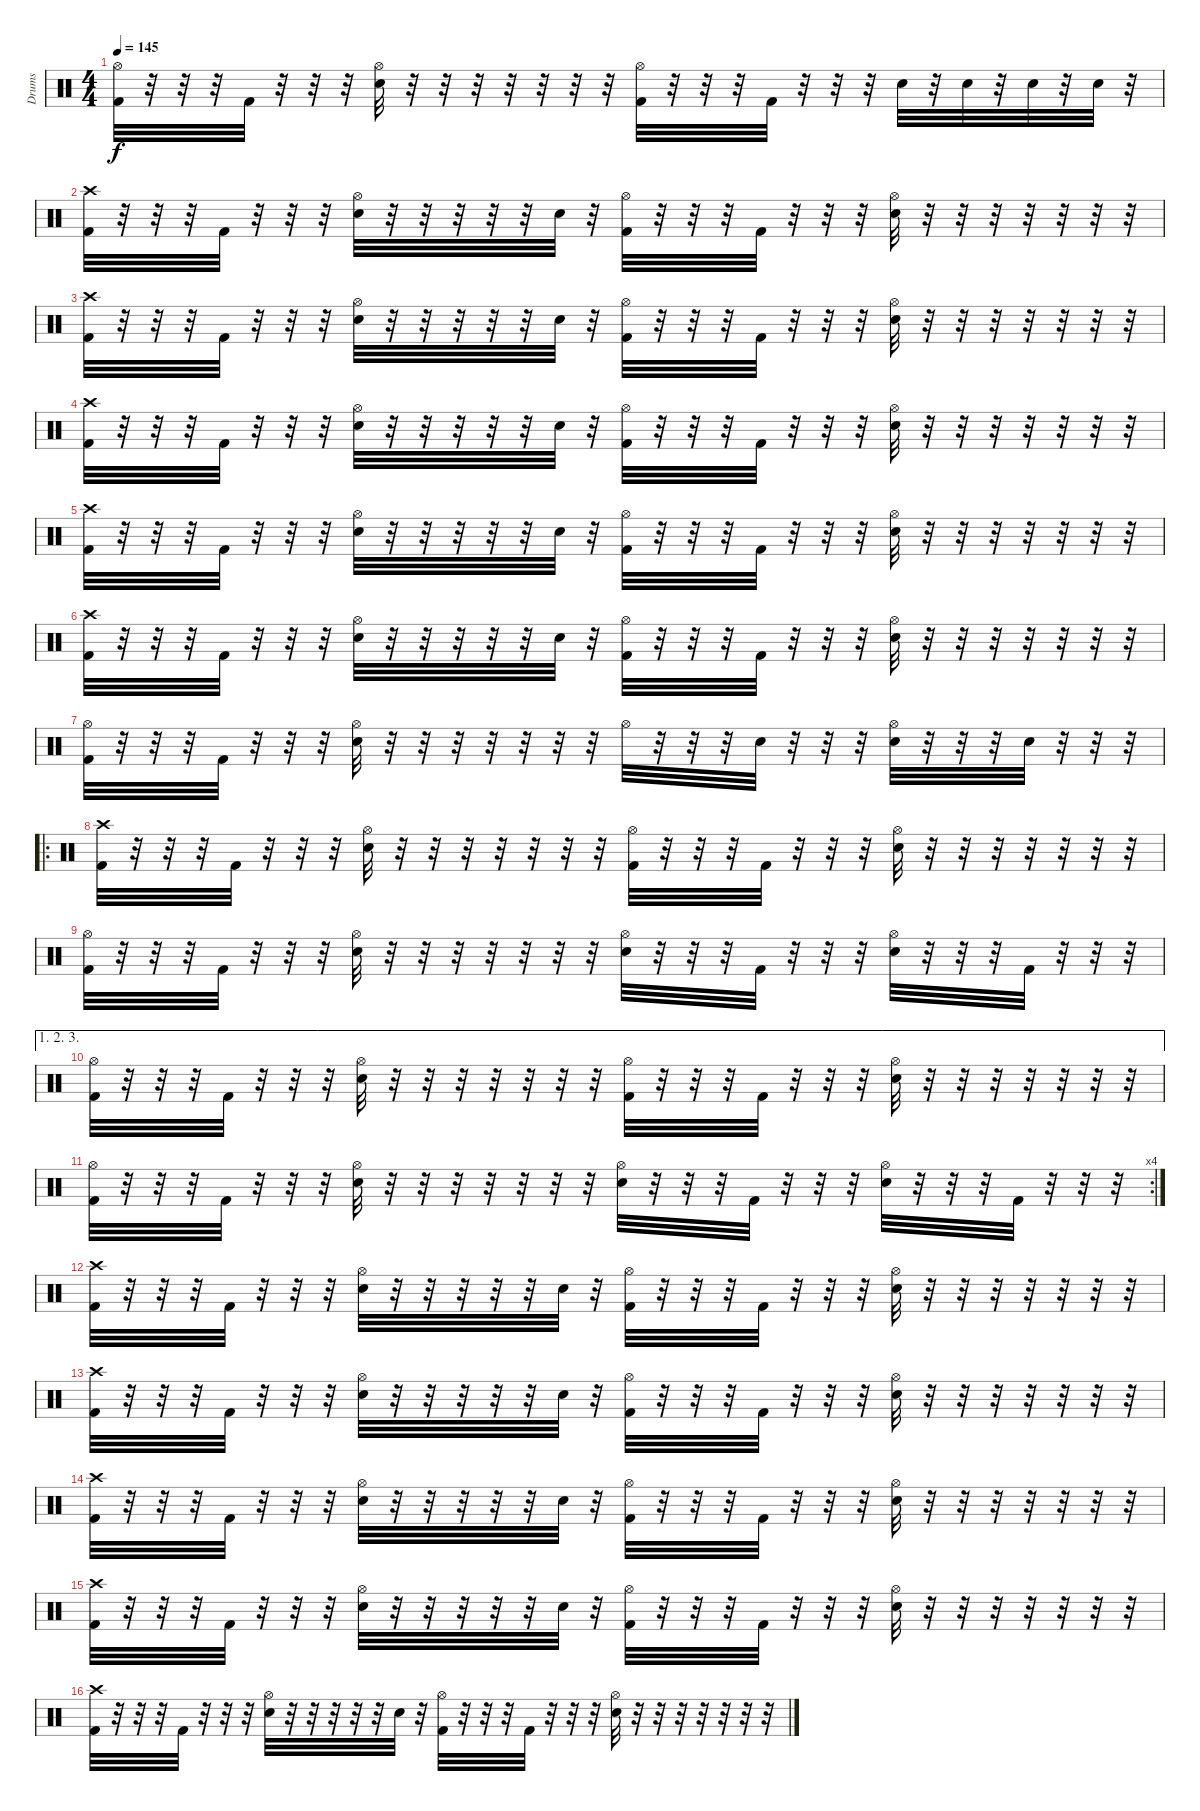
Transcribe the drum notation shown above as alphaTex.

\track ("Drums" "Drums") {instrument percussion}
\staff {score}
\articulation defaults
\ts (4 4)
\tempo 145
\clef neutral
\ks c
("Hi-Hat (open)" "Kick (hit) 2").32{dy f} r.32 r.32 r.32 "Kick (hit) 2".32 r.32 r.32 r.32 ("Hi-Hat (open)" "Snare (hit) 2").32 r.32 r.32 r.32 r.32 r.32 r.32 r.32 ("Hi-Hat (open)" "Kick (hit) 2").32 r.32 r.32 r.32 "Kick (hit) 2".32 r.32 r.32 r.32 "Snare (hit) 2".32 r.32 "Snare (hit) 2".32 r.32 "Snare (hit) 2".32 r.32 "Snare (hit) 2".32 r.32 |
("Crash high (hit)" "Kick (hit) 2").32 r.32 r.32 r.32 "Kick (hit) 2".32 r.32 r.32 r.32 ("Hi-Hat (open)" "Snare (hit) 2").32 r.32 r.32 r.32 r.32 r.32 "Snare (hit) 2".32 r.32 ("Hi-Hat (open)" "Kick (hit) 2").32 r.32 r.32 r.32 "Kick (hit) 2".32 r.32 r.32 r.32 ("Hi-Hat (open)" "Snare (hit) 2").32 r.32 r.32 r.32 r.32 r.32 r.32 r.32 |
("Crash high (hit)" "Kick (hit) 2").32 r.32 r.32 r.32 "Kick (hit) 2".32 r.32 r.32 r.32 ("Hi-Hat (open)" "Snare (hit) 2").32 r.32 r.32 r.32 r.32 r.32 "Snare (hit) 2".32 r.32 ("Hi-Hat (open)" "Kick (hit) 2").32 r.32 r.32 r.32 "Kick (hit) 2".32 r.32 r.32 r.32 ("Hi-Hat (open)" "Snare (hit) 2").32 r.32 r.32 r.32 r.32 r.32 r.32 r.32 |
("Crash high (hit)" "Kick (hit) 2").32 r.32 r.32 r.32 "Kick (hit) 2".32 r.32 r.32 r.32 ("Hi-Hat (open)" "Snare (hit) 2").32 r.32 r.32 r.32 r.32 r.32 "Snare (hit) 2".32 r.32 ("Hi-Hat (open)" "Kick (hit) 2").32 r.32 r.32 r.32 "Kick (hit) 2".32 r.32 r.32 r.32 ("Hi-Hat (open)" "Snare (hit) 2").32 r.32 r.32 r.32 r.32 r.32 r.32 r.32 |
("Crash high (hit)" "Kick (hit) 2").32 r.32 r.32 r.32 "Kick (hit) 2".32 r.32 r.32 r.32 ("Hi-Hat (open)" "Snare (hit) 2").32 r.32 r.32 r.32 r.32 r.32 "Snare (hit) 2".32 r.32 ("Hi-Hat (open)" "Kick (hit) 2").32 r.32 r.32 r.32 "Kick (hit) 2".32 r.32 r.32 r.32 ("Hi-Hat (open)" "Snare (hit) 2").32 r.32 r.32 r.32 r.32 r.32 r.32 r.32 |
("Crash high (hit)" "Kick (hit) 2").32 r.32 r.32 r.32 "Kick (hit) 2".32 r.32 r.32 r.32 ("Hi-Hat (open)" "Snare (hit) 2").32 r.32 r.32 r.32 r.32 r.32 "Snare (hit) 2".32 r.32 ("Hi-Hat (open)" "Kick (hit) 2").32 r.32 r.32 r.32 "Kick (hit) 2".32 r.32 r.32 r.32 ("Hi-Hat (open)" "Snare (hit) 2").32 r.32 r.32 r.32 r.32 r.32 r.32 r.32 |
("Hi-Hat (open)" "Kick (hit) 2").32 r.32 r.32 r.32 "Kick (hit) 2".32 r.32 r.32 r.32 ("Hi-Hat (open)" "Snare (hit) 2").32 r.32 r.32 r.32 r.32 r.32 r.32 r.32 "Hi-Hat (open)".32 r.32 r.32 r.32 "Snare (hit) 2".32 r.32 r.32 r.32 ("Hi-Hat (open)" "Snare (hit) 2").32 r.32 r.32 r.32 "Snare (hit) 2".32 r.32 r.32 r.32 |
\ro
("Crash high (hit)" "Kick (hit) 2").32 r.32 r.32 r.32 "Kick (hit) 2".32 r.32 r.32 r.32 ("Hi-Hat (open)" "Snare (hit) 2").32 r.32 r.32 r.32 r.32 r.32 r.32 r.32 ("Hi-Hat (open)" "Kick (hit) 2").32 r.32 r.32 r.32 "Kick (hit) 2".32 r.32 r.32 r.32 ("Hi-Hat (open)" "Snare (hit) 2").32 r.32 r.32 r.32 r.32 r.32 r.32 r.32 |
("Hi-Hat (open)" "Kick (hit) 2").32 r.32 r.32 r.32 "Kick (hit) 2".32 r.32 r.32 r.32 ("Hi-Hat (open)" "Snare (hit) 2").32 r.32 r.32 r.32 r.32 r.32 r.32 r.32 ("Hi-Hat (open)" "Snare (hit) 2").32 r.32 r.32 r.32 "Kick (hit) 2".32 r.32 r.32 r.32 ("Hi-Hat (open)" "Snare (hit) 2").32 r.32 r.32 r.32 "Kick (hit) 2".32 r.32 r.32 r.32 |
\ae (1 2 3)
("Hi-Hat (open)" "Kick (hit) 2").32 r.32 r.32 r.32 "Kick (hit) 2".32 r.32 r.32 r.32 ("Hi-Hat (open)" "Snare (hit) 2").32 r.32 r.32 r.32 r.32 r.32 r.32 r.32 ("Hi-Hat (open)" "Kick (hit) 2").32 r.32 r.32 r.32 "Kick (hit) 2".32 r.32 r.32 r.32 ("Hi-Hat (open)" "Snare (hit) 2").32 r.32 r.32 r.32 r.32 r.32 r.32 r.32 |
\rc 4
("Hi-Hat (open)" "Kick (hit) 2").32 r.32 r.32 r.32 "Kick (hit) 2".32 r.32 r.32 r.32 ("Hi-Hat (open)" "Snare (hit) 2").32 r.32 r.32 r.32 r.32 r.32 r.32 r.32 ("Hi-Hat (open)" "Snare (hit) 2").32 r.32 r.32 r.32 "Kick (hit) 2".32 r.32 r.32 r.32 ("Hi-Hat (open)" "Snare (hit) 2").32 r.32 r.32 r.32 "Kick (hit) 2".32 r.32 r.32 r.32 |
("Crash high (hit)" "Kick (hit) 2").32 r.32 r.32 r.32 "Kick (hit) 2".32 r.32 r.32 r.32 ("Hi-Hat (open)" "Snare (hit) 2").32 r.32 r.32 r.32 r.32 r.32 "Snare (hit) 2".32 r.32 ("Hi-Hat (open)" "Kick (hit) 2").32 r.32 r.32 r.32 "Kick (hit) 2".32 r.32 r.32 r.32 ("Hi-Hat (open)" "Snare (hit) 2").32 r.32 r.32 r.32 r.32 r.32 r.32 r.32 |
("Crash high (hit)" "Kick (hit) 2").32 r.32 r.32 r.32 "Kick (hit) 2".32 r.32 r.32 r.32 ("Hi-Hat (open)" "Snare (hit) 2").32 r.32 r.32 r.32 r.32 r.32 "Snare (hit) 2".32 r.32 ("Hi-Hat (open)" "Kick (hit) 2").32 r.32 r.32 r.32 "Kick (hit) 2".32 r.32 r.32 r.32 ("Hi-Hat (open)" "Snare (hit) 2").32 r.32 r.32 r.32 r.32 r.32 r.32 r.32 |
("Crash high (hit)" "Kick (hit) 2").32 r.32 r.32 r.32 "Kick (hit) 2".32 r.32 r.32 r.32 ("Hi-Hat (open)" "Snare (hit) 2").32 r.32 r.32 r.32 r.32 r.32 "Snare (hit) 2".32 r.32 ("Hi-Hat (open)" "Kick (hit) 2").32 r.32 r.32 r.32 "Kick (hit) 2".32 r.32 r.32 r.32 ("Hi-Hat (open)" "Snare (hit) 2").32 r.32 r.32 r.32 r.32 r.32 r.32 r.32 |
("Crash high (hit)" "Kick (hit) 2").32 r.32 r.32 r.32 "Kick (hit) 2".32 r.32 r.32 r.32 ("Hi-Hat (open)" "Snare (hit) 2").32 r.32 r.32 r.32 r.32 r.32 "Snare (hit) 2".32 r.32 ("Hi-Hat (open)" "Kick (hit) 2").32 r.32 r.32 r.32 "Kick (hit) 2".32 r.32 r.32 r.32 ("Hi-Hat (open)" "Snare (hit) 2").32 r.32 r.32 r.32 r.32 r.32 r.32 r.32 |
("Crash high (hit)" "Kick (hit) 2").32 r.32 r.32 r.32 "Kick (hit) 2".32 r.32 r.32 r.32 ("Hi-Hat (open)" "Snare (hit) 2").32 r.32 r.32 r.32 r.32 r.32 "Snare (hit) 2".32 r.32 ("Hi-Hat (open)" "Kick (hit) 2").32 r.32 r.32 r.32 "Kick (hit) 2".32 r.32 r.32 r.32 ("Hi-Hat (open)" "Snare (hit) 2").32 r.32 r.32 r.32 r.32 r.32 r.32 r.32
